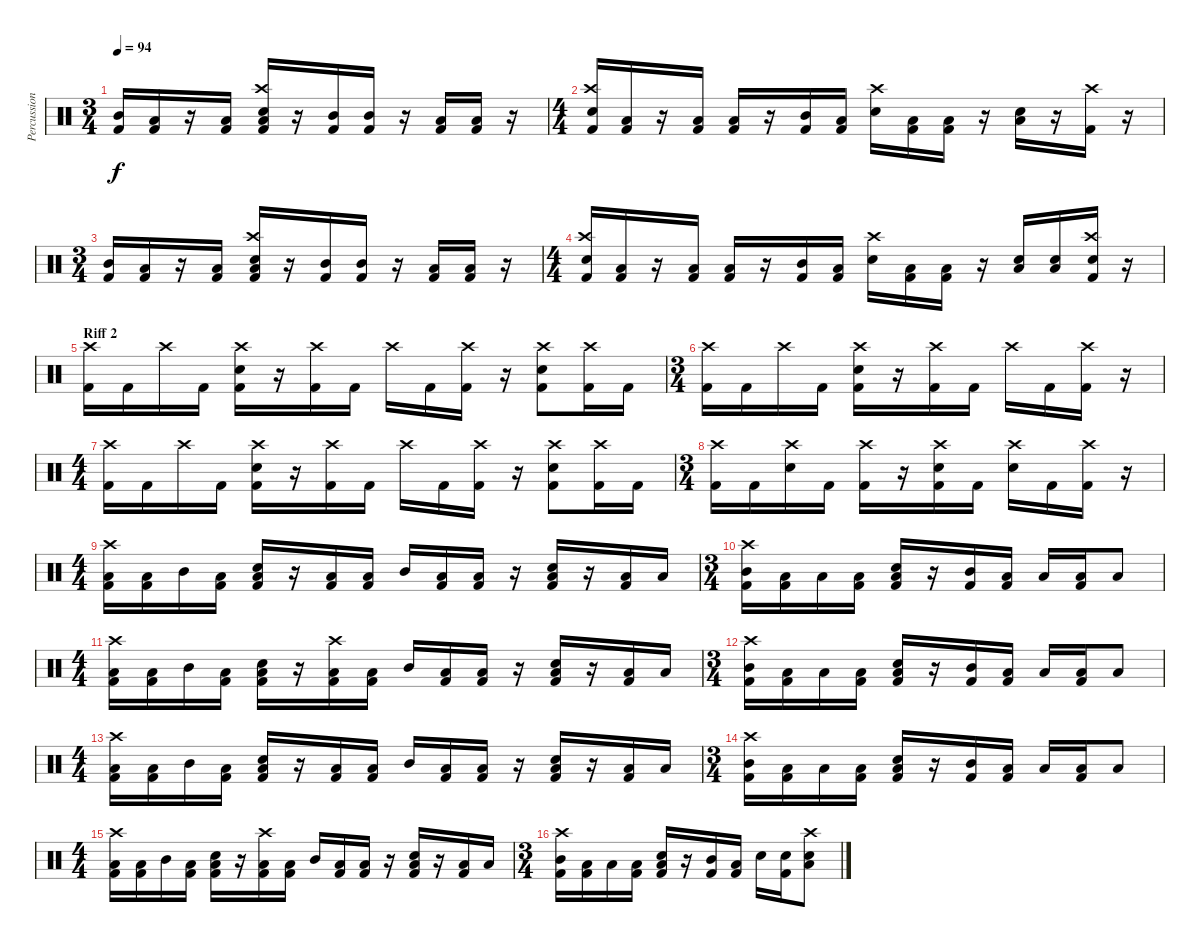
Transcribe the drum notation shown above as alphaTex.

\track ("Percussion" "Percussion") {instrument percussion}
\staff {score}
\articulation defaults
\ts (3 4)
\tempo 94
\clef neutral
\ks c
("Mid Tom (hit)" "Kick (hit) 2").16{dy f} ("Low Tom (hit)" "Kick (hit) 2").16 r.16 ("Low Tom (hit)" "Kick (hit) 2").16 ("Crash high (hit)" "Electric Snare (hit)" "Low Floor Tom (hit)" "Kick (hit) 2").16 r.16 ("Mid Tom (hit)" "Kick (hit) 2").16 ("Mid Tom (hit)" "Kick (hit) 2").16 r.16 ("Low Tom (hit)" "Kick (hit) 2").16 ("Low Floor Tom (hit)" "Kick (hit) 2").16 r.16 |
\ts (4 4)
("Crash high (hit)" "Electric Snare (hit)" "Kick (hit) 2").16 ("Low Tom (hit)" "Kick (hit) 2").16 r.16 ("Low Tom (hit)" "Kick (hit) 2").16 ("Low Floor Tom (hit)" "Kick (hit) 2").16 r.16 ("Mid Tom (hit)" "Kick (hit) 2").16 ("Low Tom (hit)" "Kick (hit) 2").16 ("Crash high (hit)" "Electric Snare (hit)").16 ("Low Tom (hit)" "Kick (hit) 2").16 ("Low Floor Tom (hit)" "Kick (hit) 2").16 r.16 ("Electric Snare (hit)" "Low Floor Tom (hit)").16 r.16 ("Crash high (hit)" "Kick (hit) 2").16 r.16 |
\ts (3 4)
("Mid Tom (hit)" "Kick (hit) 2").16 ("Low Tom (hit)" "Kick (hit) 2").16 r.16 ("Low Tom (hit)" "Kick (hit) 2").16 ("Crash high (hit)" "Electric Snare (hit)" "Low Floor Tom (hit)" "Kick (hit) 2").16 r.16 ("Mid Tom (hit)" "Kick (hit) 2").16 ("Mid Tom (hit)" "Kick (hit) 2").16 r.16 ("Low Tom (hit)" "Kick (hit) 2").16 ("Low Floor Tom (hit)" "Kick (hit) 2").16 r.16 |
\ts (4 4)
("Crash high (hit)" "Electric Snare (hit)" "Kick (hit) 2").16 ("Low Tom (hit)" "Kick (hit) 2").16 r.16 ("Low Tom (hit)" "Kick (hit) 2").16 ("Low Floor Tom (hit)" "Kick (hit) 2").16 r.16 ("Mid Tom (hit)" "Kick (hit) 2").16 ("Low Tom (hit)" "Kick (hit) 2").16 ("Crash high (hit)" "Electric Snare (hit)").16 ("Low Tom (hit)" "Kick (hit) 2").16 ("Low Floor Tom (hit)" "Kick (hit) 2").16 r.16 ("Electric Snare (hit)" "Low Floor Tom (hit)").16 ("Electric Snare (hit)" "Low Floor Tom (hit)").16 ("Crash high (hit)" "Electric Snare (hit)" "Kick (hit) 2").16 r.16 |
\section ("" "Riff 2")
("Crash high (hit)" "Kick (hit) 2").16 "Kick (hit) 2".16 "Crash high (hit)".16 "Kick (hit) 2".16 ("Crash high (hit)" "Electric Snare (hit)" "Kick (hit) 2").16 r.16 ("Crash high (hit)" "Kick (hit) 2").16 "Kick (hit) 2".16 "Crash high (hit)".16 "Kick (hit) 2".16 ("Crash high (hit)" "Kick (hit) 2").16 r.16 ("Crash high (hit)" "Electric Snare (hit)" "Kick (hit) 2").8 ("Crash high (hit)" "Kick (hit) 2").16 "Kick (hit) 2".16 |
\ts (3 4)
("Crash high (hit)" "Kick (hit) 2").16 "Kick (hit) 2".16 "Crash high (hit)".16 "Kick (hit) 2".16 ("Crash high (hit)" "Electric Snare (hit)" "Kick (hit) 2").16 r.16 ("Crash high (hit)" "Kick (hit) 2").16 "Kick (hit) 2".16 "Crash high (hit)".16 "Kick (hit) 2".16 ("Crash high (hit)" "Kick (hit) 2").16 r.16 |
\ts (4 4)
("Crash high (hit)" "Kick (hit) 2").16 "Kick (hit) 2".16 "Crash high (hit)".16 "Kick (hit) 2".16 ("Crash high (hit)" "Electric Snare (hit)" "Kick (hit) 2").16 r.16 ("Crash high (hit)" "Kick (hit) 2").16 "Kick (hit) 2".16 "Crash high (hit)".16 "Kick (hit) 2".16 ("Crash high (hit)" "Kick (hit) 2").16 r.16 ("Crash high (hit)" "Electric Snare (hit)" "Kick (hit) 2").8 ("Crash high (hit)" "Kick (hit) 2").16 "Kick (hit) 2".16 |
\ts (3 4)
("Crash high (hit)" "Kick (hit) 2").16 "Kick (hit) 2".16 ("Crash high (hit)" "Electric Snare (hit)").16 "Kick (hit) 2".16 ("Crash high (hit)" "Kick (hit) 2").16 r.16 ("Crash high (hit)" "Electric Snare (hit)" "Kick (hit) 2").16 "Kick (hit) 2".16 ("Crash high (hit)" "Electric Snare (hit)").16 "Kick (hit) 2".16 ("Crash high (hit)" "Kick (hit) 2").16 r.16 |
\ts (4 4)
("Crash high (hit)" "Low Tom (hit)" "Kick (hit) 2").16 ("Low Floor Tom (hit)" "Kick (hit) 2").16 "Mid Tom (hit)".16 ("Low Tom (hit)" "Kick (hit) 2").16 ("Electric Snare (hit)" "Low Floor Tom (hit)" "Kick (hit) 2").16 r.16 ("Low Tom (hit)" "Kick (hit) 2").16 ("Low Floor Tom (hit)" "Kick (hit) 2").16 "Mid Tom (hit)".16 ("Low Tom (hit)" "Kick (hit) 2").16 ("Low Floor Tom (hit)" "Kick (hit) 2").16 r.16 ("Electric Snare (hit)" "Low Tom (hit)" "Kick (hit) 2").16 r.16 ("Low Tom (hit)" "Kick (hit) 2").16 "Low Floor Tom (hit)".16 |
\ts (3 4)
("Crash high (hit)" "Mid Tom (hit)" "Kick (hit) 2").16 ("Low Tom (hit)" "Kick (hit) 2").16 "Low Floor Tom (hit)".16 ("Low Tom (hit)" "Kick (hit) 2").16 ("Electric Snare (hit)" "Low Floor Tom (hit)" "Kick (hit) 2").16 r.16 ("Mid Tom (hit)" "Kick (hit) 2").16 ("Low Tom (hit)" "Kick (hit) 2").16 "Low Tom (hit)".16 ("Low Tom (hit)" "Kick (hit) 2").16 "Low Floor Tom (hit)".8 |
\ts (4 4)
("Crash high (hit)" "Low Tom (hit)" "Kick (hit) 2").16 ("Low Floor Tom (hit)" "Kick (hit) 2").16 "Mid Tom (hit)".16 ("Low Tom (hit)" "Kick (hit) 2").16 ("Electric Snare (hit)" "Low Floor Tom (hit)" "Kick (hit) 2").16 r.16 ("Crash high (hit)" "Low Tom (hit)" "Kick (hit) 2").16 ("Low Floor Tom (hit)" "Kick (hit) 2").16 "Mid Tom (hit)".16 ("Low Tom (hit)" "Kick (hit) 2").16 ("Low Floor Tom (hit)" "Kick (hit) 2").16 r.16 ("Electric Snare (hit)" "Low Tom (hit)" "Kick (hit) 2").16 r.16 ("Low Tom (hit)" "Kick (hit) 2").16 "Low Floor Tom (hit)".16 |
\ts (3 4)
("Crash high (hit)" "Mid Tom (hit)" "Kick (hit) 2").16 ("Low Tom (hit)" "Kick (hit) 2").16 "Low Floor Tom (hit)".16 ("Low Tom (hit)" "Kick (hit) 2").16 ("Electric Snare (hit)" "Low Floor Tom (hit)" "Kick (hit) 2").16 r.16 ("Mid Tom (hit)" "Kick (hit) 2").16 ("Low Tom (hit)" "Kick (hit) 2").16 "Low Tom (hit)".16 ("Low Tom (hit)" "Kick (hit) 2").16 "Low Floor Tom (hit)".8 |
\ts (4 4)
("Crash high (hit)" "Low Tom (hit)" "Kick (hit) 2").16 ("Low Floor Tom (hit)" "Kick (hit) 2").16 "Mid Tom (hit)".16 ("Low Tom (hit)" "Kick (hit) 2").16 ("Electric Snare (hit)" "Low Floor Tom (hit)" "Kick (hit) 2").16 r.16 ("Low Tom (hit)" "Kick (hit) 2").16 ("Low Floor Tom (hit)" "Kick (hit) 2").16 "Mid Tom (hit)".16 ("Low Tom (hit)" "Kick (hit) 2").16 ("Low Floor Tom (hit)" "Kick (hit) 2").16 r.16 ("Electric Snare (hit)" "Low Tom (hit)" "Kick (hit) 2").16 r.16 ("Low Tom (hit)" "Kick (hit) 2").16 "Low Floor Tom (hit)".16 |
\ts (3 4)
("Crash high (hit)" "Mid Tom (hit)" "Kick (hit) 2").16 ("Low Tom (hit)" "Kick (hit) 2").16 "Low Floor Tom (hit)".16 ("Low Tom (hit)" "Kick (hit) 2").16 ("Electric Snare (hit)" "Low Floor Tom (hit)" "Kick (hit) 2").16 r.16 ("Mid Tom (hit)" "Kick (hit) 2").16 ("Low Tom (hit)" "Kick (hit) 2").16 "Low Tom (hit)".16 ("Low Tom (hit)" "Kick (hit) 2").16 "Low Floor Tom (hit)".8 |
\ts (4 4)
("Crash high (hit)" "Low Tom (hit)" "Kick (hit) 2").16 ("Low Floor Tom (hit)" "Kick (hit) 2").16 "Mid Tom (hit)".16 ("Low Tom (hit)" "Kick (hit) 2").16 ("Electric Snare (hit)" "Low Floor Tom (hit)" "Kick (hit) 2").16 r.16 ("Crash high (hit)" "Low Tom (hit)" "Kick (hit) 2").16 ("Low Floor Tom (hit)" "Kick (hit) 2").16 "Mid Tom (hit)".16 ("Low Tom (hit)" "Kick (hit) 2").16 ("Low Floor Tom (hit)" "Kick (hit) 2").16 r.16 ("Electric Snare (hit)" "Low Tom (hit)" "Kick (hit) 2").16 r.16 ("Low Tom (hit)" "Kick (hit) 2").16 "Low Floor Tom (hit)".16 |
\ts (3 4)
("Crash high (hit)" "Mid Tom (hit)" "Kick (hit) 2").16 ("Low Tom (hit)" "Kick (hit) 2").16 "Low Floor Tom (hit)".16 ("Low Tom (hit)" "Kick (hit) 2").16 ("Electric Snare (hit)" "Low Floor Tom (hit)" "Kick (hit) 2").16 r.16 ("Mid Tom (hit)" "Kick (hit) 2").16 ("Low Tom (hit)" "Kick (hit) 2").16 "Electric Snare (hit)".16 ("Electric Snare (hit)" "Kick (hit) 2").16 ("Crash high (hit)" "Electric Snare (hit)" "Low Floor Tom (hit)").8
